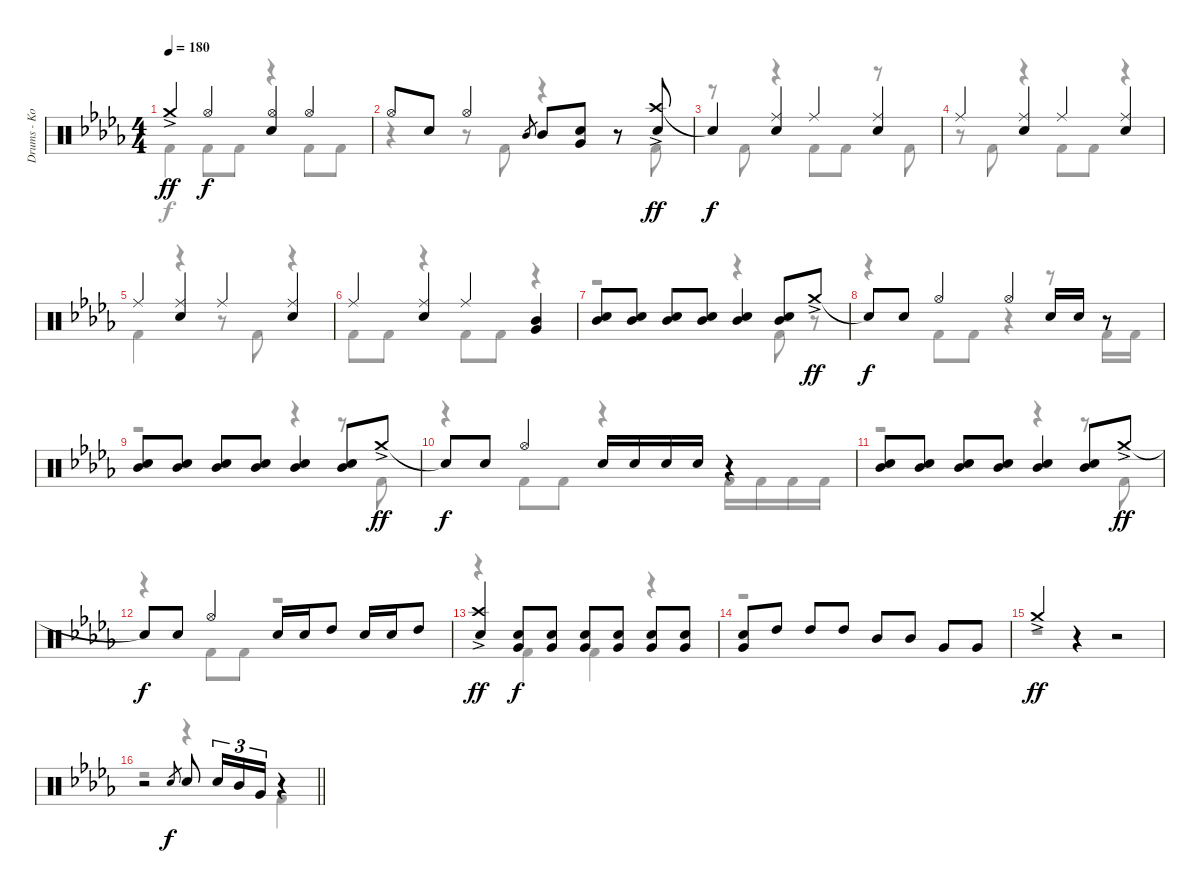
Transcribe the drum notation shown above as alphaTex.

\track ("Drums - Koji Hasegawa" "Drums - Ko") {instrument percussion}
\staff {score}
\articulation defaults
\voice
\ts (4 4)
\tempo 180
\clef neutral
\ks db "Crash medium (hit)"{ac}.4{dy ff} "Hi-Hat (open)".4{dy f}
("Hi-Hat (open)" "Snare (hit) 2").4 "Hi-Hat (open)".4 |
"Hi-Hat (open)".8 "Snare (hit) 2".8 "Hi-Hat (open)".4 "Mid Tom (hit)".8{gr} "Mid Tom (hit)".8 ("Very Low Tom (hit)" "Snare (hit) 2").8 r.8 ("Crash high (hit)"{ac} "Snare (hit) 2").8{dy ff} |
"Snare (hit)"{t}.4{dy f} ("Ride (middle)" "Snare (hit) 2").4 "Ride (middle)".4 ("Ride (middle)" "Snare (hit) 2").4 |
"Ride (middle)".4 ("Ride (middle)" "Snare (hit) 2").4 "Ride (middle)".4 ("Ride (middle)" "Snare (hit) 2").4 |
"Ride (middle)".4 ("Ride (middle)" "Snare (hit) 2").4 "Ride (middle)".4 ("Ride (middle)" "Snare (hit) 2").4 |
"Ride (middle)".4 ("Ride (middle)" "Snare (hit) 2").4 "Ride (middle)".4 ("Mid Tom (hit)" "Very Low Tom (hit)").4 |
("Mid Tom (hit)" "Snare (hit) 2").8 ("Mid Tom (hit)" "Snare (hit) 2").8 ("Mid Tom (hit)" "Snare (hit) 2").8 ("Mid Tom (hit)" "Snare (hit) 2").8 ("Mid Tom (hit)" "Snare (hit) 2").4 ("Mid Tom (hit)" "Snare (hit) 2").8 "Crash medium (hit)"{ac}.8{dy ff} |
"Snare (hit)"{t}.8{dy f} "Snare (hit) 2".8 "Hi-Hat (open)".4 "Hi-Hat (open)".4 "Snare (hit) 2".16 "Snare (hit) 2".16 r.8 |
("Mid Tom (hit)" "Snare (hit) 2").8 ("Mid Tom (hit)" "Snare (hit) 2").8 ("Mid Tom (hit)" "Snare (hit) 2").8 ("Mid Tom (hit)" "Snare (hit) 2").8 ("Mid Tom (hit)" "Snare (hit) 2").4 ("Mid Tom (hit)" "Snare (hit) 2").8 "Crash medium (hit)"{ac}.8{dy ff} |
"Snare (hit)"{t}.8{dy f} "Snare (hit) 2".8 "Hi-Hat (open)".4 "Snare (hit) 2".16 "Snare (hit) 2".16 "Snare (hit) 2".16 "Snare (hit) 2".16 r.4 |
("Mid Tom (hit)" "Snare (hit) 2").8 ("Mid Tom (hit)" "Snare (hit) 2").8 ("Mid Tom (hit)" "Snare (hit) 2").8 ("Mid Tom (hit)" "Snare (hit) 2").8 ("Mid Tom (hit)" "Snare (hit) 2").4 ("Mid Tom (hit)" "Snare (hit) 2").8 "Crash medium (hit)"{ac}.8{dy ff} |
"Snare (hit)"{t}.8{dy f} "Snare (hit) 2".8 "Hi-Hat (open)".4 "Snare (hit) 2".16 "Snare (hit) 2".16 "High Tom (hit)".8 "Snare (hit) 2".16 "Snare (hit) 2".16 "High Tom (hit)".8 |
("Crash high (hit)"{ac} "Snare (hit) 2").4{dy ff} ("Very Low Tom (hit)" "Snare (hit) 2").8{dy f} ("Very Low Tom (hit)" "Snare (hit) 2").8 ("Very Low Tom (hit)" "Snare (hit) 2").8 ("Very Low Tom (hit)" "Snare (hit) 2").8 ("Very Low Tom (hit)" "Snare (hit) 2").8 ("Very Low Tom (hit)" "Snare (hit) 2").8 |
("Very Low Tom (hit)" "Snare (hit) 2").8 "High Tom (hit)".8 "High Tom (hit)".8 "High Tom (hit)".8 "Mid Tom (hit)".8 "Mid Tom (hit)".8 "Very Low Tom (hit)".8 "Very Low Tom (hit)".8 |
"Crash medium (hit)"{ac}.4{dy ff} r.4 r.2 |
\barLineRight lightlight
r.2 "Snare (hit) 2".8{gr dy f} "Snare (hit) 2".8 "Snare (hit) 2".16{tu (3 2)} "Mid Tom (hit)".16{tu (3 2)} "Very Low Tom (hit)".16{tu (3 2)} r.4
\voice
\clef neutral
\ottava regular
\simile none
\ks db "Kick (hit) 2".4{dy f} "Kick (hit) 2".8 "Kick (hit) 2".8
r.4 "Kick (hit) 2".8 "Kick (hit) 2".8 |
r.4 r.8 "Kick (hit) 2".8 r.4 r.8 "Kick (hit) 2".8 |
r.8 "Kick (hit) 2".8 r.4 "Kick (hit) 2".8 "Kick (hit) 2".8 r.8 "Kick (hit) 2".8 |
r.8 "Kick (hit) 2".8 r.4 "Kick (hit) 2".8 "Kick (hit) 2".8 r.4 |
"Kick (hit) 2".4 r.4 r.8 "Kick (hit) 2".8 r.4 |
"Kick (hit) 2".8 "Kick (hit) 2".8 r.4 "Kick (hit) 2".8 "Kick (hit) 2".8 r.4 |
r.2 r.4 "Kick (hit) 2".8 r.8 |
r.4 "Kick (hit) 2".8 "Kick (hit) 2".8 r.4 r.8 "Kick (hit) 2".16 "Kick (hit) 2".16 |
r.2 r.4 r.8 "Kick (hit) 2".8 |
r.4 "Kick (hit) 2".8 "Kick (hit) 2".8 r.4 "Kick (hit) 2".16 "Kick (hit) 2".16 "Kick (hit) 2".16 "Kick (hit) 2".16 |
r.2 r.4 r.8 "Kick (hit) 2".8 |
r.4 "Kick (hit) 2".8 "Kick (hit) 2".8 r.2 |
r.4 "Kick (hit) 2".4 "Kick (hit) 2".4 r.4 |
r.1 |
r.1 |
\barLineRight lightlight
r.2 r.4 "Kick (hit) 2".4
